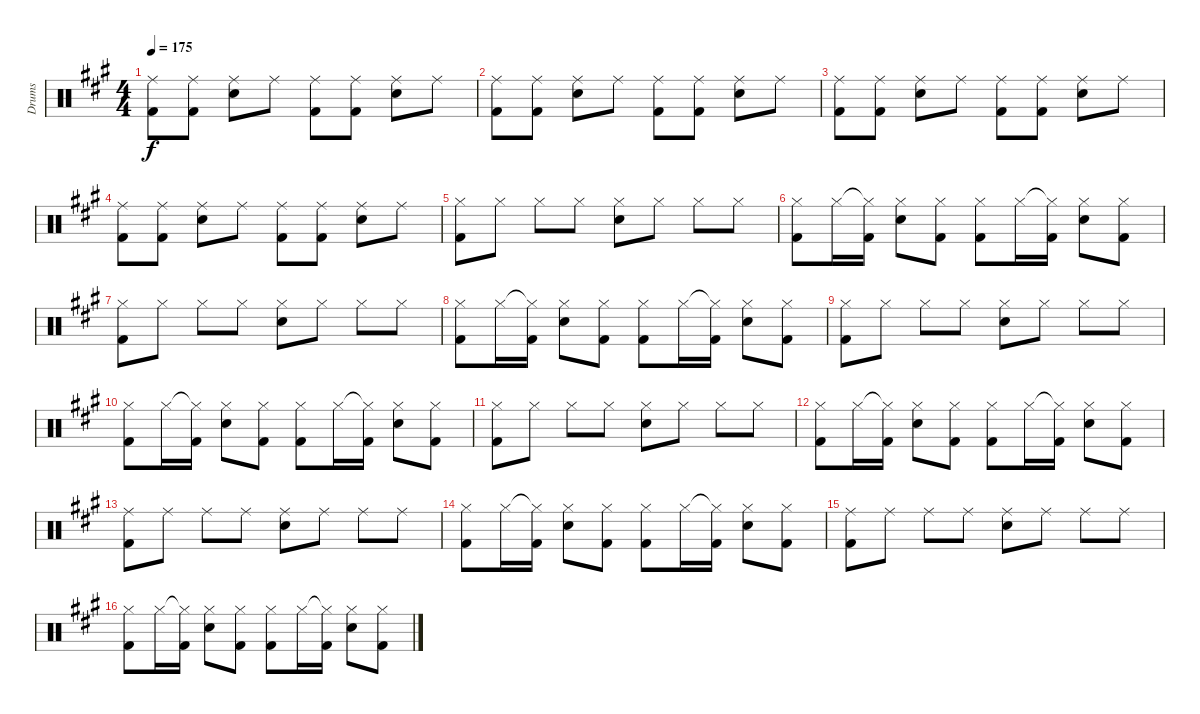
\track ("Drums" "Drums") {instrument percussion}
\staff {score}
\articulation defaults
\ts (4 4)
\tempo 175
\clef neutral
\ks f#minor
("Ride (middle)" "Kick (hit) 2").8{dy f} ("Ride (middle)" "Kick (hit) 2").8 ("Ride (middle)" "Snare (hit) 2").8 "Ride (middle)".8 ("Ride (middle)" "Kick (hit) 2").8 ("Ride (middle)" "Kick (hit) 2").8 ("Ride (middle)" "Snare (hit) 2").8 "Ride (middle)".8 |
("Ride (middle)" "Kick (hit) 2").8 ("Ride (middle)" "Kick (hit) 2").8 ("Ride (middle)" "Snare (hit) 2").8 "Ride (middle)".8 ("Ride (middle)" "Kick (hit) 2").8 ("Ride (middle)" "Kick (hit) 2").8 ("Ride (middle)" "Snare (hit) 2").8 "Ride (middle)".8 |
("Ride (middle)" "Kick (hit) 2").8 ("Ride (middle)" "Kick (hit) 2").8 ("Ride (middle)" "Snare (hit) 2").8 "Ride (middle)".8 ("Ride (middle)" "Kick (hit) 2").8 ("Ride (middle)" "Kick (hit) 2").8 ("Ride (middle)" "Snare (hit) 2").8 "Ride (middle)".8 |
("Ride (middle)" "Kick (hit) 2").8 ("Ride (middle)" "Kick (hit) 2").8 ("Ride (middle)" "Snare (hit) 2").8 "Ride (middle)".8 ("Ride (middle)" "Kick (hit) 2").8 ("Ride (middle)" "Kick (hit) 2").8 ("Ride (middle)" "Snare (hit) 2").8 "Ride (middle)".8 |
("Hi-Hat (closed)" "Kick (hit) 2").8 "Hi-Hat (closed)".8 "Hi-Hat (closed)".8 "Hi-Hat (closed)".8 ("Hi-Hat (closed)" "Snare (hit) 2").8 "Hi-Hat (closed)".8 "Hi-Hat (closed)".8 "Hi-Hat (closed)".8 |
("Hi-Hat (closed)" "Kick (hit) 2").8 "Hi-Hat (closed)".16 ("Hi-Hat (closed)"{t} "Kick (hit) 2").16 ("Hi-Hat (closed)" "Snare (hit) 2").8 ("Hi-Hat (closed)" "Kick (hit) 2").8 ("Hi-Hat (closed)" "Kick (hit) 2").8 "Hi-Hat (closed)".16 ("Hi-Hat (closed)"{t} "Kick (hit) 2").16 ("Hi-Hat (closed)" "Snare (hit) 2").8 ("Hi-Hat (closed)" "Kick (hit) 2").8 |
("Hi-Hat (closed)" "Kick (hit) 2").8 "Hi-Hat (closed)".8 "Hi-Hat (closed)".8 "Hi-Hat (closed)".8 ("Hi-Hat (closed)" "Snare (hit) 2").8 "Hi-Hat (closed)".8 "Hi-Hat (closed)".8 "Hi-Hat (closed)".8 |
("Hi-Hat (closed)" "Kick (hit) 2").8 "Hi-Hat (closed)".16 ("Hi-Hat (closed)"{t} "Kick (hit) 2").16 ("Hi-Hat (closed)" "Snare (hit) 2").8 ("Hi-Hat (closed)" "Kick (hit) 2").8 ("Hi-Hat (closed)" "Kick (hit) 2").8 "Hi-Hat (closed)".16 ("Hi-Hat (closed)"{t} "Kick (hit) 2").16 ("Hi-Hat (closed)" "Snare (hit) 2").8 ("Hi-Hat (closed)" "Kick (hit) 2").8 |
("Hi-Hat (closed)" "Kick (hit) 2").8 "Hi-Hat (closed)".8 "Hi-Hat (closed)".8 "Hi-Hat (closed)".8 ("Hi-Hat (closed)" "Snare (hit) 2").8 "Hi-Hat (closed)".8 "Hi-Hat (closed)".8 "Hi-Hat (closed)".8 |
("Hi-Hat (closed)" "Kick (hit) 2").8 "Hi-Hat (closed)".16 ("Hi-Hat (closed)"{t} "Kick (hit) 2").16 ("Hi-Hat (closed)" "Snare (hit) 2").8 ("Hi-Hat (closed)" "Kick (hit) 2").8 ("Hi-Hat (closed)" "Kick (hit) 2").8 "Hi-Hat (closed)".16 ("Hi-Hat (closed)"{t} "Kick (hit) 2").16 ("Hi-Hat (closed)" "Snare (hit) 2").8 ("Hi-Hat (closed)" "Kick (hit) 2").8 |
("Hi-Hat (closed)" "Kick (hit) 2").8 "Hi-Hat (closed)".8 "Hi-Hat (closed)".8 "Hi-Hat (closed)".8 ("Hi-Hat (closed)" "Snare (hit) 2").8 "Hi-Hat (closed)".8 "Hi-Hat (closed)".8 "Hi-Hat (closed)".8 |
("Hi-Hat (closed)" "Kick (hit) 2").8 "Hi-Hat (closed)".16 ("Hi-Hat (closed)"{t} "Kick (hit) 2").16 ("Hi-Hat (closed)" "Snare (hit) 2").8 ("Hi-Hat (closed)" "Kick (hit) 2").8 ("Hi-Hat (closed)" "Kick (hit) 2").8 "Hi-Hat (closed)".16 ("Hi-Hat (closed)"{t} "Kick (hit) 2").16 ("Hi-Hat (closed)" "Snare (hit) 2").8 ("Hi-Hat (closed)" "Kick (hit) 2").8 |
("Ride (middle)" "Kick (hit) 2").8 "Ride (middle)".8 "Ride (middle)".8 "Ride (middle)".8 ("Ride (middle)" "Snare (hit) 2").8 "Ride (middle)".8 "Ride (middle)".8 "Ride (middle)".8 |
("Hi-Hat (closed)" "Kick (hit) 2").8 "Hi-Hat (closed)".16 ("Hi-Hat (closed)"{t} "Kick (hit) 2").16 ("Hi-Hat (closed)" "Snare (hit) 2").8 ("Hi-Hat (closed)" "Kick (hit) 2").8 ("Hi-Hat (closed)" "Kick (hit) 2").8 "Hi-Hat (closed)".16 ("Hi-Hat (closed)"{t} "Kick (hit) 2").16 ("Hi-Hat (closed)" "Snare (hit) 2").8 ("Hi-Hat (closed)" "Kick (hit) 2").8 |
("Ride (middle)" "Kick (hit) 2").8 "Ride (middle)".8 "Ride (middle)".8 "Ride (middle)".8 ("Ride (middle)" "Snare (hit) 2").8 "Ride (middle)".8 "Ride (middle)".8 "Ride (middle)".8 |
("Hi-Hat (closed)" "Kick (hit) 2").8 "Hi-Hat (closed)".16 ("Hi-Hat (closed)"{t} "Kick (hit) 2").16 ("Hi-Hat (closed)" "Snare (hit) 2").8 ("Hi-Hat (closed)" "Kick (hit) 2").8 ("Hi-Hat (closed)" "Kick (hit) 2").8 "Hi-Hat (closed)".16 ("Hi-Hat (closed)"{t} "Kick (hit) 2").16 ("Hi-Hat (closed)" "Snare (hit) 2").8 ("Hi-Hat (closed)" "Kick (hit) 2").8
